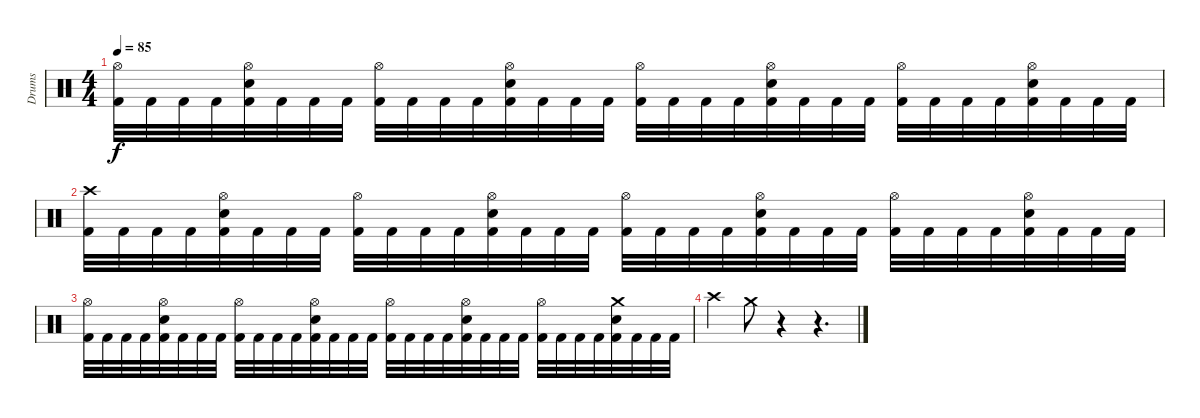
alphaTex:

\track ("Drums" "Drums") {instrument percussion}
\staff {score}
\articulation defaults
\ts (4 4)
\tempo 85
\clef neutral
\ks c
("Hi-Hat (open)" "Kick (hit) 2").32{dy f} "Kick (hit) 2".32 "Kick (hit) 2".32 "Kick (hit) 2".32 ("Hi-Hat (open)" "Snare (hit) 2" "Kick (hit) 2").32 "Kick (hit) 2".32 "Kick (hit) 2".32 "Kick (hit) 2".32 ("Hi-Hat (open)" "Kick (hit) 2").32 "Kick (hit) 2".32 "Kick (hit) 2".32 "Kick (hit) 2".32 ("Hi-Hat (open)" "Snare (hit) 2" "Kick (hit) 2").32 "Kick (hit) 2".32 "Kick (hit) 2".32 "Kick (hit) 2".32 ("Hi-Hat (open)" "Kick (hit) 2").32 "Kick (hit) 2".32 "Kick (hit) 2".32 "Kick (hit) 2".32 ("Hi-Hat (open)" "Snare (hit) 2" "Kick (hit) 2").32 "Kick (hit) 2".32 "Kick (hit) 2".32 "Kick (hit) 2".32 ("Hi-Hat (open)" "Kick (hit) 2").32 "Kick (hit) 2".32 "Kick (hit) 2".32 "Kick (hit) 2".32 ("Hi-Hat (open)" "Snare (hit) 2" "Kick (hit) 2").32 "Kick (hit) 2".32 "Kick (hit) 2".32 "Kick (hit) 2".32 |
("Crash high (hit)" "Kick (hit) 2").32 "Kick (hit) 2".32 "Kick (hit) 2".32 "Kick (hit) 2".32 ("Hi-Hat (open)" "Snare (hit) 2" "Kick (hit) 2").32 "Kick (hit) 2".32 "Kick (hit) 2".32 "Kick (hit) 2".32 ("Hi-Hat (open)" "Kick (hit) 2").32 "Kick (hit) 2".32 "Kick (hit) 2".32 "Kick (hit) 2".32 ("Hi-Hat (open)" "Snare (hit) 2" "Kick (hit) 2").32 "Kick (hit) 2".32 "Kick (hit) 2".32 "Kick (hit) 2".32 ("Hi-Hat (open)" "Kick (hit) 2").32 "Kick (hit) 2".32 "Kick (hit) 2".32 "Kick (hit) 2".32 ("Hi-Hat (open)" "Snare (hit) 2" "Kick (hit) 2").32 "Kick (hit) 2".32 "Kick (hit) 2".32 "Kick (hit) 2".32 ("Hi-Hat (open)" "Kick (hit) 2").32 "Kick (hit) 2".32 "Kick (hit) 2".32 "Kick (hit) 2".32 ("Hi-Hat (open)" "Snare (hit) 2" "Kick (hit) 2").32 "Kick (hit) 2".32 "Kick (hit) 2".32 "Kick (hit) 2".32 |
("Hi-Hat (open)" "Kick (hit) 2").32 "Kick (hit) 2".32 "Kick (hit) 2".32 "Kick (hit) 2".32 ("Hi-Hat (open)" "Snare (hit) 2" "Kick (hit) 2").32 "Kick (hit) 2".32 "Kick (hit) 2".32 "Kick (hit) 2".32 ("Hi-Hat (open)" "Kick (hit) 2").32 "Kick (hit) 2".32 "Kick (hit) 2".32 "Kick (hit) 2".32 ("Hi-Hat (open)" "Snare (hit) 2" "Kick (hit) 2").32 "Kick (hit) 2".32 "Kick (hit) 2".32 "Kick (hit) 2".32 ("Hi-Hat (open)" "Kick (hit) 2").32 "Kick (hit) 2".32 "Kick (hit) 2".32 "Kick (hit) 2".32 ("Hi-Hat (open)" "Snare (hit) 2" "Kick (hit) 2").32 "Kick (hit) 2".32 "Kick (hit) 2".32 "Kick (hit) 2".32 ("Hi-Hat (open)" "Kick (hit) 2").32 "Kick (hit) 2".32 "Kick (hit) 2".32 "Kick (hit) 2".32 ("Crash medium (hit)" "Snare (hit) 2" "Kick (hit) 2").32 "Kick (hit) 2".32 "Kick (hit) 2".32 "Kick (hit) 2".32 |
"Crash high (hit)".4 "Crash medium (hit)".8 r.4 r.4{d}
